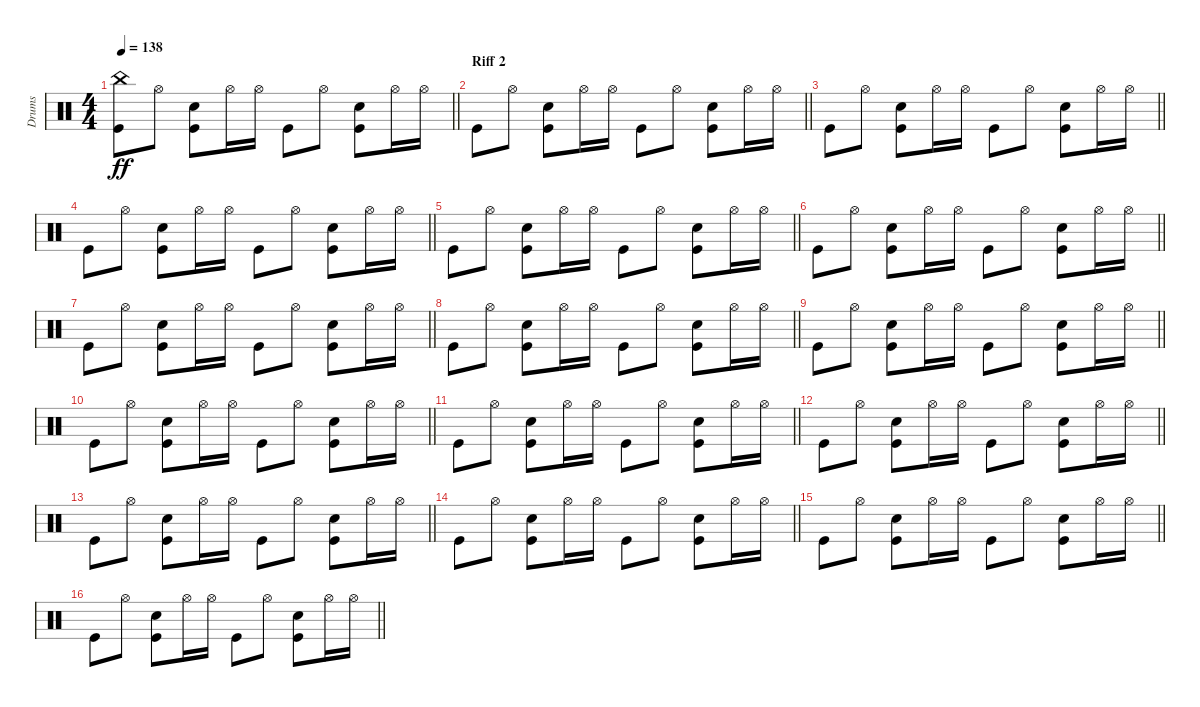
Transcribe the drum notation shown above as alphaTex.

\track ("Drums" "Drums") {instrument percussion}
\staff {score}
\articulation defaults
\ts (4 4)
\tempo 138
\clef neutral
\barLineRight lightlight
\ks c
("Kick (hit)" "China (hit)").8{dy ff} "Hi-Hat (open)".8 ("Kick (hit)" "Snare (hit) 2").8 "Hi-Hat (open)".16 "Hi-Hat (open)".16 "Kick (hit)".8 "Hi-Hat (open)".8 ("Kick (hit)" "Snare (hit) 2").8 "Hi-Hat (open)".16 "Hi-Hat (open)".16 |
\section ("" "Riff 2")
\barLineRight lightlight "Kick (hit)".8 "Hi-Hat (open)".8
("Kick (hit)" "Snare (hit) 2").8 "Hi-Hat (open)".16 "Hi-Hat (open)".16 "Kick (hit)".8 "Hi-Hat (open)".8 ("Kick (hit)" "Snare (hit) 2").8 "Hi-Hat (open)".16 "Hi-Hat (open)".16 |
\barLineRight lightlight "Kick (hit)".8 "Hi-Hat (open)".8
("Kick (hit)" "Snare (hit) 2").8 "Hi-Hat (open)".16 "Hi-Hat (open)".16 "Kick (hit)".8 "Hi-Hat (open)".8 ("Kick (hit)" "Snare (hit) 2").8 "Hi-Hat (open)".16 "Hi-Hat (open)".16 |
\barLineRight lightlight "Kick (hit)".8 "Hi-Hat (open)".8
("Kick (hit)" "Snare (hit) 2").8 "Hi-Hat (open)".16 "Hi-Hat (open)".16 "Kick (hit)".8 "Hi-Hat (open)".8 ("Kick (hit)" "Snare (hit) 2").8 "Hi-Hat (open)".16 "Hi-Hat (open)".16 |
\barLineRight lightlight "Kick (hit)".8 "Hi-Hat (open)".8
("Kick (hit)" "Snare (hit) 2").8 "Hi-Hat (open)".16 "Hi-Hat (open)".16 "Kick (hit)".8 "Hi-Hat (open)".8 ("Kick (hit)" "Snare (hit) 2").8 "Hi-Hat (open)".16 "Hi-Hat (open)".16 |
\barLineRight lightlight "Kick (hit)".8 "Hi-Hat (open)".8
("Kick (hit)" "Snare (hit) 2").8 "Hi-Hat (open)".16 "Hi-Hat (open)".16 "Kick (hit)".8 "Hi-Hat (open)".8 ("Kick (hit)" "Snare (hit) 2").8 "Hi-Hat (open)".16 "Hi-Hat (open)".16 |
\barLineRight lightlight "Kick (hit)".8 "Hi-Hat (open)".8
("Kick (hit)" "Snare (hit) 2").8 "Hi-Hat (open)".16 "Hi-Hat (open)".16 "Kick (hit)".8 "Hi-Hat (open)".8 ("Kick (hit)" "Snare (hit) 2").8 "Hi-Hat (open)".16 "Hi-Hat (open)".16 |
\barLineRight lightlight "Kick (hit)".8 "Hi-Hat (open)".8
("Kick (hit)" "Snare (hit) 2").8 "Hi-Hat (open)".16 "Hi-Hat (open)".16 "Kick (hit)".8 "Hi-Hat (open)".8 ("Kick (hit)" "Snare (hit) 2").8 "Hi-Hat (open)".16 "Hi-Hat (open)".16 |
\barLineRight lightlight "Kick (hit)".8 "Hi-Hat (open)".8
("Kick (hit)" "Snare (hit) 2").8 "Hi-Hat (open)".16 "Hi-Hat (open)".16 "Kick (hit)".8 "Hi-Hat (open)".8 ("Kick (hit)" "Snare (hit) 2").8 "Hi-Hat (open)".16 "Hi-Hat (open)".16 |
\barLineRight lightlight "Kick (hit)".8 "Hi-Hat (open)".8
("Kick (hit)" "Snare (hit) 2").8 "Hi-Hat (open)".16 "Hi-Hat (open)".16 "Kick (hit)".8 "Hi-Hat (open)".8 ("Kick (hit)" "Snare (hit) 2").8 "Hi-Hat (open)".16 "Hi-Hat (open)".16 |
\barLineRight lightlight "Kick (hit)".8 "Hi-Hat (open)".8
("Kick (hit)" "Snare (hit) 2").8 "Hi-Hat (open)".16 "Hi-Hat (open)".16 "Kick (hit)".8 "Hi-Hat (open)".8 ("Kick (hit)" "Snare (hit) 2").8 "Hi-Hat (open)".16 "Hi-Hat (open)".16 |
\barLineRight lightlight "Kick (hit)".8 "Hi-Hat (open)".8
("Kick (hit)" "Snare (hit) 2").8 "Hi-Hat (open)".16 "Hi-Hat (open)".16 "Kick (hit)".8 "Hi-Hat (open)".8 ("Kick (hit)" "Snare (hit) 2").8 "Hi-Hat (open)".16 "Hi-Hat (open)".16 |
\barLineRight lightlight "Kick (hit)".8 "Hi-Hat (open)".8
("Kick (hit)" "Snare (hit) 2").8 "Hi-Hat (open)".16 "Hi-Hat (open)".16 "Kick (hit)".8 "Hi-Hat (open)".8 ("Kick (hit)" "Snare (hit) 2").8 "Hi-Hat (open)".16 "Hi-Hat (open)".16 |
\barLineRight lightlight "Kick (hit)".8 "Hi-Hat (open)".8
("Kick (hit)" "Snare (hit) 2").8 "Hi-Hat (open)".16 "Hi-Hat (open)".16 "Kick (hit)".8 "Hi-Hat (open)".8 ("Kick (hit)" "Snare (hit) 2").8 "Hi-Hat (open)".16 "Hi-Hat (open)".16 |
\barLineRight lightlight "Kick (hit)".8 "Hi-Hat (open)".8
("Kick (hit)" "Snare (hit) 2").8 "Hi-Hat (open)".16 "Hi-Hat (open)".16 "Kick (hit)".8 "Hi-Hat (open)".8 ("Kick (hit)" "Snare (hit) 2").8 "Hi-Hat (open)".16 "Hi-Hat (open)".16 |
\barLineRight lightlight "Kick (hit)".8 "Hi-Hat (open)".8
("Kick (hit)" "Snare (hit) 2").8 "Hi-Hat (open)".16 "Hi-Hat (open)".16 "Kick (hit)".8 "Hi-Hat (open)".8 ("Kick (hit)" "Snare (hit) 2").8 "Hi-Hat (open)".16 "Hi-Hat (open)".16
